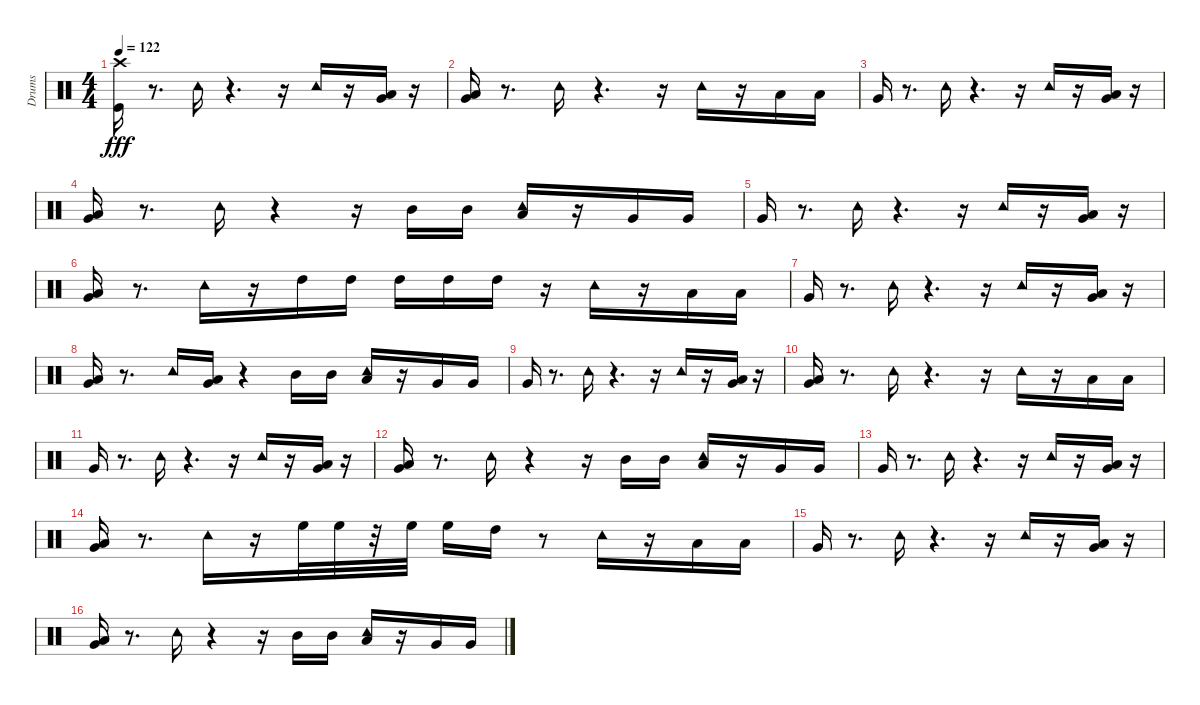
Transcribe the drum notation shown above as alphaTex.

\track ("Drums" "Drums") {instrument percussion}
\staff {score}
\articulation defaults
\ts (4 4)
\tempo 122
\clef neutral
\ks c
("Crash high (hit)" "Kick (hit)").16{dy fff} r.8{d} "Tambourine (hit)".16 r.4{d} r.16 "Tambourine (hit)".16 r.16 ("Low Floor Tom (hit)" "Very Low Tom (hit)").16 r.16 |
("Low Floor Tom (hit)" "Very Low Tom (hit)").16 r.8{d} "Tambourine (hit)".16 r.4{d} r.16 "Tambourine (hit)".16 r.16 "Low Tom (hit)".16 "Low Tom (hit)".16 |
"Very Low Tom (hit)".16 r.8{d} "Tambourine (hit)".16 r.4{d} r.16 "Tambourine (hit)".16 r.16 ("Low Floor Tom (hit)" "Very Low Tom (hit)").16 r.16 |
("Low Floor Tom (hit)" "Very Low Tom (hit)").16 r.8{d} "Tambourine (hit)".16 r.4 r.16 "Mid Tom (hit)".16 "Mid Tom (hit)".16 ("Tambourine (hit)" "Low Tom (hit)").16 r.16 "Very Low Tom (hit)".16 "Very Low Tom (hit)".16 |
"Very Low Tom (hit)".16 r.8{d} "Tambourine (hit)".16 r.4{d} r.16 "Tambourine (hit)".16 r.16 ("Low Floor Tom (hit)" "Very Low Tom (hit)").16 r.16 |
("Low Floor Tom (hit)" "Very Low Tom (hit)").16 r.8{d} "Tambourine (hit)".16 r.16 "High Tom (hit)".16 "High Tom (hit)".16 "High Tom (hit)".16 "High Tom (hit)".16 "High Tom (hit)".16 r.16 "Tambourine (hit)".16 r.16 "Low Tom (hit)".16 "Low Tom (hit)".16 |
"Very Low Tom (hit)".16 r.8{d} "Tambourine (hit)".16 r.4{d} r.16 "Tambourine (hit)".16 r.16 ("Very Low Tom (hit)" "Low Floor Tom (hit)").16 r.16 |
("Low Floor Tom (hit)" "Very Low Tom (hit)").16 r.8{d} "Tambourine (hit)".16 ("Low Floor Tom (hit)" "Very Low Tom (hit)").16 r.4 "Mid Tom (hit)".16 "Mid Tom (hit)".16 ("Tambourine (hit)" "Low Tom (hit)").16 r.16 "Very Low Tom (hit)".16 "Very Low Tom (hit)".16 |
"Very Low Tom (hit)".16 r.8{d} "Tambourine (hit)".16 r.4{d} r.16 "Tambourine (hit)".16 r.16 ("Very Low Tom (hit)" "Low Floor Tom (hit)").16 r.16 |
("Very Low Tom (hit)" "Low Floor Tom (hit)").16 r.8{d} "Tambourine (hit)".16 r.4{d} r.16 "Tambourine (hit)".16 r.16 "Low Tom (hit)".16 "Low Tom (hit)".16 |
"Very Low Tom (hit)".16 r.8{d} "Tambourine (hit)".16 r.4{d} r.16 "Tambourine (hit)".16 r.16 ("Very Low Tom (hit)" "Low Floor Tom (hit)").16 r.16 |
("Very Low Tom (hit)" "Low Floor Tom (hit)").16 r.8{d} "Tambourine (hit)".16 r.4 r.16 "Mid Tom (hit)".16 "Mid Tom (hit)".16 ("Tambourine (hit)" "Low Tom (hit)").16 r.16 "Very Low Tom (hit)".16 "Very Low Tom (hit)".16 |
"Very Low Tom (hit)".16 r.8{d} "Tambourine (hit)".16 r.4{d} r.16 "Tambourine (hit)".16 r.16 ("Very Low Tom (hit)" "Low Floor Tom (hit)").16 r.16 |
("Very Low Tom (hit)" "Low Floor Tom (hit)").16 r.8{d} "Tambourine (hit)".16 r.16 "High Floor Tom (hit)".32 "High Floor Tom (hit)".32 r.32 "High Floor Tom (hit)".32 "High Floor Tom (hit)".16 "High Tom (hit)".16 r.8 "Tambourine (hit)".16 r.16 "Low Tom (hit)".16 "Low Tom (hit)".16 |
"Very Low Tom (hit)".16 r.8{d} "Tambourine (hit)".16 r.4{d} r.16 "Tambourine (hit)".16 r.16 ("Very Low Tom (hit)" "Low Floor Tom (hit)").16 r.16 |
("Very Low Tom (hit)" "Low Floor Tom (hit)").16 r.8{d} "Tambourine (hit)".16 r.4 r.16 "Mid Tom (hit)".16 "Mid Tom (hit)".16 ("Low Tom (hit)" "Tambourine (hit)").16 r.16 "Very Low Tom (hit)".16 "Very Low Tom (hit)".16
